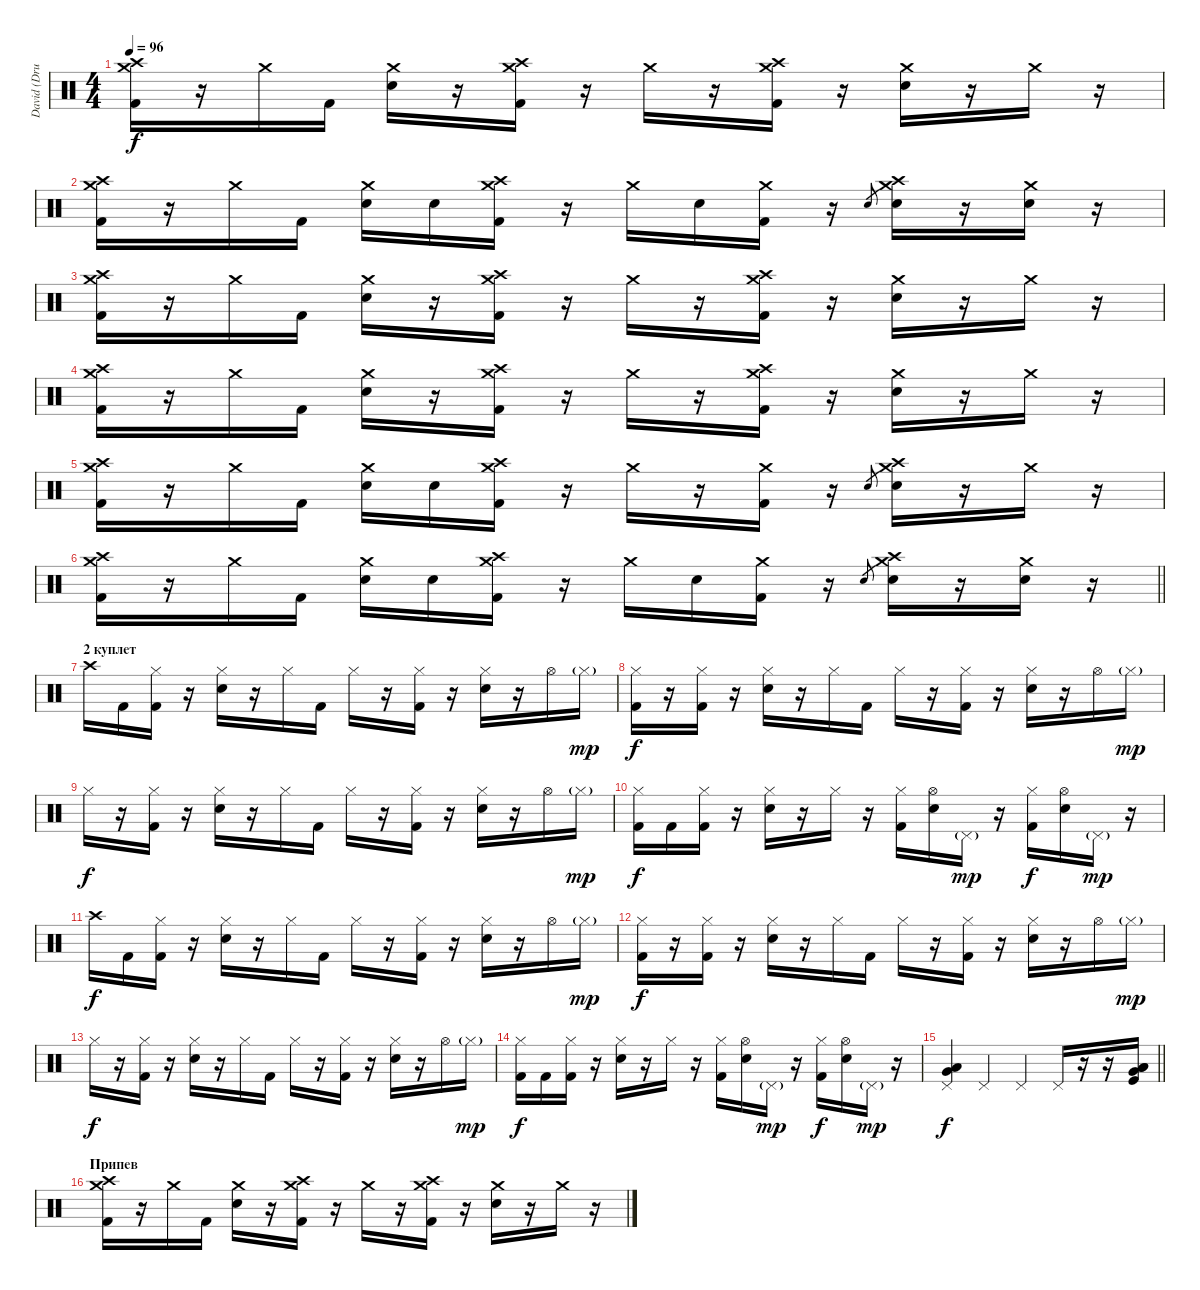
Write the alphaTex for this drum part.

\track ("David (Drums)" "David (Dru") {instrument percussion}
\staff {score}
\articulation defaults
\ts (4 4)
\tempo 96
\clef neutral
\ks c
("Crash high (hit)" "Crash medium (hit)" "Kick (hit) 2").16{dy f} r.16 "Crash medium (hit)".16 "Kick (hit) 2".16 ("Crash medium (hit)" "Electric Snare (hit)").16 r.16 ("Crash high (hit)" "Crash medium (hit)" "Kick (hit) 2").16 r.16 "Crash medium (hit)".16 r.16 ("Crash high (hit)" "Crash medium (hit)" "Kick (hit) 2").16 r.16 ("Crash medium (hit)" "Electric Snare (hit)").16 r.16 "Crash medium (hit)".16 r.16 |
("Crash high (hit)" "Crash medium (hit)" "Kick (hit) 2").16 r.16 "Crash medium (hit)".16 "Kick (hit) 2".16 ("Crash medium (hit)" "Electric Snare (hit)").16 "Electric Snare (hit)".16 ("Crash high (hit)" "Crash medium (hit)" "Kick (hit) 2").16 r.16 "Crash medium (hit)".16 "Electric Snare (hit)".16 ("Crash medium (hit)" "Kick (hit) 2").16 r.16 "Electric Snare (hit)".8{gr} ("Crash high (hit)" "Crash medium (hit)" "Electric Snare (hit)").16 r.16 ("Crash medium (hit)" "Electric Snare (hit)").16 r.16 |
("Crash high (hit)" "Crash medium (hit)" "Kick (hit) 2").16 r.16 "Crash medium (hit)".16 "Kick (hit) 2".16 ("Crash medium (hit)" "Electric Snare (hit)").16 r.16 ("Crash high (hit)" "Crash medium (hit)" "Kick (hit) 2").16 r.16 "Crash medium (hit)".16 r.16 ("Crash high (hit)" "Crash medium (hit)" "Kick (hit) 2").16 r.16 ("Crash medium (hit)" "Electric Snare (hit)").16 r.16 "Crash medium (hit)".16 r.16 |
("Crash high (hit)" "Crash medium (hit)" "Kick (hit) 2").16 r.16 "Crash medium (hit)".16 "Kick (hit) 2".16 ("Crash medium (hit)" "Electric Snare (hit)").16 r.16 ("Crash high (hit)" "Crash medium (hit)" "Kick (hit) 2").16 r.16 "Crash medium (hit)".16 r.16 ("Crash high (hit)" "Crash medium (hit)" "Kick (hit) 2").16 r.16 ("Crash medium (hit)" "Electric Snare (hit)").16 r.16 "Crash medium (hit)".16 r.16 |
("Crash high (hit)" "Crash medium (hit)" "Kick (hit) 2").16 r.16 "Crash medium (hit)".16 "Kick (hit) 2".16 ("Crash medium (hit)" "Electric Snare (hit)").16 "Electric Snare (hit)".16 ("Crash high (hit)" "Crash medium (hit)" "Kick (hit) 2").16 r.16 "Crash medium (hit)".16 r.16 ("Crash medium (hit)" "Kick (hit) 2").16 r.16 "Electric Snare (hit)".8{gr} ("Crash high (hit)" "Crash medium (hit)" "Electric Snare (hit)").16 r.16 "Crash medium (hit)".16 r.16 |
\barLineRight lightlight
("Crash high (hit)" "Crash medium (hit)" "Kick (hit) 2").16 r.16 "Crash medium (hit)".16 "Kick (hit) 2".16 ("Crash medium (hit)" "Electric Snare (hit)").16 "Electric Snare (hit)".16 ("Crash high (hit)" "Crash medium (hit)" "Kick (hit) 2").16 r.16 "Crash medium (hit)".16 "Electric Snare (hit)".16 ("Crash medium (hit)" "Kick (hit) 2").16 r.16 "Electric Snare (hit)".8{gr} ("Crash high (hit)" "Crash medium (hit)" "Electric Snare (hit)").16 r.16 ("Crash medium (hit)" "Electric Snare (hit)").16 r.16 |
\section ("" "2 куплет")
"Crash high (hit)".16 "Kick (hit) 2".16 ("Hi-Hat (closed)" "Kick (hit) 2").16 r.16 ("Hi-Hat (closed)" "Electric Snare (hit)").16 r.16 "Hi-Hat (closed)".16 "Kick (hit) 2".16 "Hi-Hat (closed)".16 r.16 ("Hi-Hat (closed)" "Kick (hit) 2").16 r.16 ("Hi-Hat (closed)" "Electric Snare (hit)").16 r.16 "Hi-Hat (open)".16 "Hi-Hat (closed)"{g}.16{dy mp} |
("Hi-Hat (closed)" "Kick (hit) 2").16{dy f} r.16 ("Hi-Hat (closed)" "Kick (hit) 2").16 r.16 ("Hi-Hat (closed)" "Electric Snare (hit)").16 r.16 "Hi-Hat (closed)".16 "Kick (hit) 2".16 "Hi-Hat (closed)".16 r.16 ("Hi-Hat (closed)" "Kick (hit) 2").16 r.16 ("Hi-Hat (closed)" "Electric Snare (hit)").16 r.16 "Hi-Hat (open)".16 "Hi-Hat (closed)"{g}.16{dy mp} |
"Hi-Hat (closed)".16{dy f} r.16 ("Hi-Hat (closed)" "Kick (hit) 2").16 r.16 ("Hi-Hat (closed)" "Electric Snare (hit)").16 r.16 "Hi-Hat (closed)".16 "Kick (hit) 2".16 "Hi-Hat (closed)".16 r.16 ("Hi-Hat (closed)" "Kick (hit) 2").16 r.16 ("Hi-Hat (closed)" "Electric Snare (hit)").16 r.16 "Hi-Hat (open)".16 "Hi-Hat (closed)"{g}.16{dy mp} |
("Hi-Hat (closed)" "Kick (hit) 2").16{dy f} "Kick (hit) 2".16 ("Hi-Hat (closed)" "Kick (hit) 2").16 r.16 ("Hi-Hat (closed)" "Electric Snare (hit)").16 r.16 "Hi-Hat (closed)".16 r.16 ("Hi-Hat (closed)" "Kick (hit) 2").16 ("Hi-Hat (open)" "Electric Snare (hit)").16 "Pedal Hi-Hat (hit)"{g}.16{dy mp} r.16 ("Hi-Hat (closed)" "Kick (hit) 2").16{dy f} ("Hi-Hat (open)" "Electric Snare (hit)").16 "Pedal Hi-Hat (hit)"{g}.16{dy mp} r.16 |
"Crash high (hit)".16{dy f} "Kick (hit) 2".16 ("Hi-Hat (closed)" "Kick (hit) 2").16 r.16 ("Hi-Hat (closed)" "Electric Snare (hit)").16 r.16 "Hi-Hat (closed)".16 "Kick (hit) 2".16 "Hi-Hat (closed)".16 r.16 ("Hi-Hat (closed)" "Kick (hit) 2").16 r.16 ("Hi-Hat (closed)" "Electric Snare (hit)").16 r.16 "Hi-Hat (open)".16 "Hi-Hat (closed)"{g}.16{dy mp} |
("Hi-Hat (closed)" "Kick (hit) 2").16{dy f} r.16 ("Hi-Hat (closed)" "Kick (hit) 2").16 r.16 ("Hi-Hat (closed)" "Electric Snare (hit)").16 r.16 "Hi-Hat (closed)".16 "Kick (hit) 2".16 "Hi-Hat (closed)".16 r.16 ("Hi-Hat (closed)" "Kick (hit) 2").16 r.16 ("Hi-Hat (closed)" "Electric Snare (hit)").16 r.16 "Hi-Hat (open)".16 "Hi-Hat (closed)"{g}.16{dy mp} |
"Hi-Hat (closed)".16{dy f} r.16 ("Hi-Hat (closed)" "Kick (hit) 2").16 r.16 ("Hi-Hat (closed)" "Electric Snare (hit)").16 r.16 "Hi-Hat (closed)".16 "Kick (hit) 2".16 "Hi-Hat (closed)".16 r.16 ("Hi-Hat (closed)" "Kick (hit) 2").16 r.16 ("Hi-Hat (closed)" "Electric Snare (hit)").16 r.16 "Hi-Hat (open)".16 "Hi-Hat (closed)"{g}.16{dy mp} |
("Hi-Hat (closed)" "Kick (hit) 2").16{dy f} "Kick (hit) 2".16 ("Hi-Hat (closed)" "Kick (hit) 2").16 r.16 ("Hi-Hat (closed)" "Electric Snare (hit)").16 r.16 "Hi-Hat (closed)".16 r.16 ("Hi-Hat (closed)" "Kick (hit) 2").16 ("Hi-Hat (open)" "Electric Snare (hit)").16 "Pedal Hi-Hat (hit)"{g}.16{dy mp} r.16 ("Hi-Hat (closed)" "Kick (hit) 2").16{dy f} ("Hi-Hat (open)" "Electric Snare (hit)").16 "Pedal Hi-Hat (hit)"{g}.16{dy mp} r.16 |
\barLineRight lightlight
("Pedal Hi-Hat (hit)" "Very Low Tom (hit)" "Low Floor Tom (hit)").4{dy f} "Pedal Hi-Hat (hit)".4 "Pedal Hi-Hat (hit)".4 "Pedal Hi-Hat (hit)".16 r.16 r.16 ("Very Low Tom (hit)" "Low Floor Tom (hit)" "Low Floor Tom (hit)" "Kick (hit)").16 |
\section ("" "Припев")
("Crash high (hit)" "Crash medium (hit)" "Kick (hit) 2").16 r.16 "Crash medium (hit)".16 "Kick (hit) 2".16 ("Crash medium (hit)" "Electric Snare (hit)").16 r.16 ("Crash high (hit)" "Crash medium (hit)" "Kick (hit) 2").16 r.16 "Crash medium (hit)".16 r.16 ("Crash high (hit)" "Crash medium (hit)" "Kick (hit) 2").16 r.16 ("Crash medium (hit)" "Electric Snare (hit)").16 r.16 "Crash medium (hit)".16 r.16
